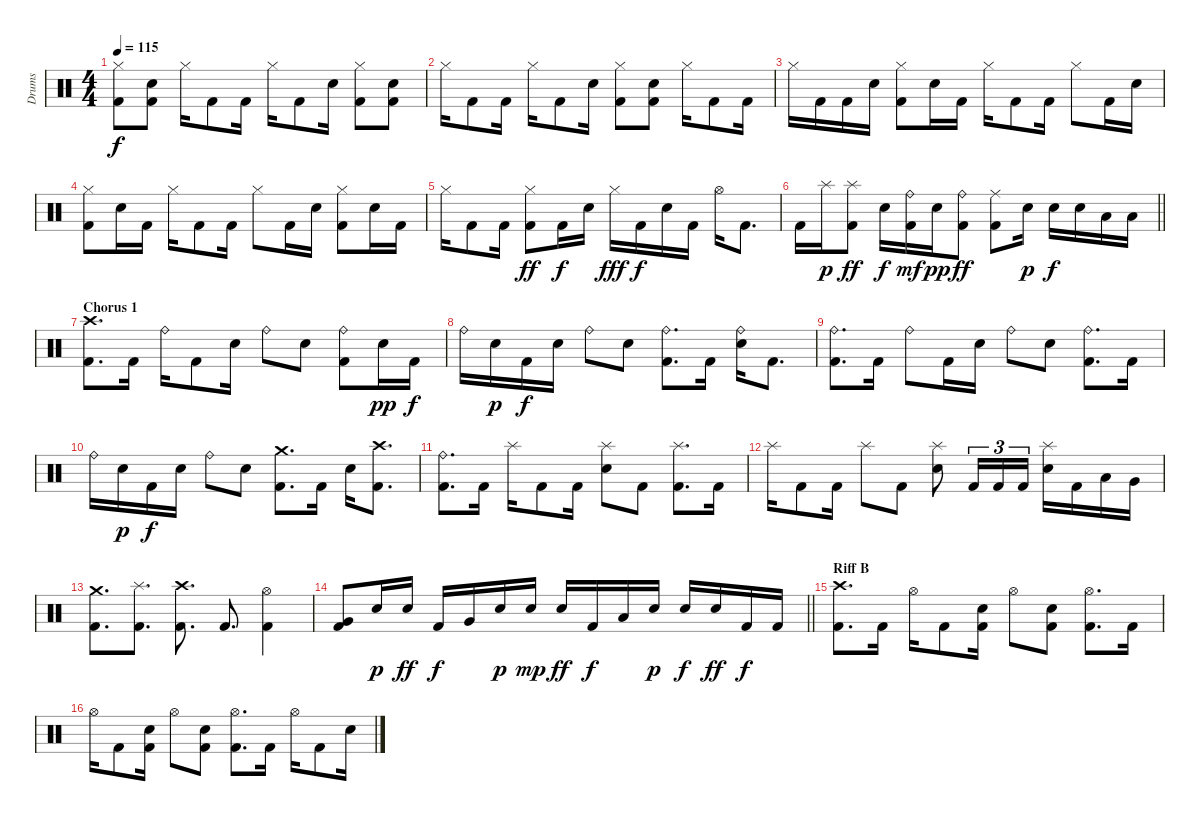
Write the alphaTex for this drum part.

\track ("Drums" "Drums") {instrument percussion}
\staff {score}
\articulation defaults
\ts (4 4)
\tempo 115
\clef neutral
\ks c
("Hi-Hat (closed)" "Kick (hit) 2").8{dy f} ("Snare (hit) 2" "Kick (hit) 2").8 "Hi-Hat (closed)".16 "Kick (hit) 2".8 "Kick (hit) 2".16 "Hi-Hat (closed)".16 "Kick (hit) 2".8 "Snare (hit) 2".16 ("Hi-Hat (closed)" "Kick (hit) 2").8 ("Snare (hit) 2" "Kick (hit) 2").8 |
"Hi-Hat (closed)".16 "Kick (hit) 2".8 "Kick (hit) 2".16 "Hi-Hat (closed)".16 "Kick (hit) 2".8 "Snare (hit) 2".16 ("Hi-Hat (closed)" "Kick (hit) 2").8 ("Snare (hit) 2" "Kick (hit) 2").8 "Hi-Hat (closed)".16 "Kick (hit) 2".8 "Kick (hit) 2".16 |
"Hi-Hat (closed)".16 "Kick (hit) 2".16 "Kick (hit) 2".16 "Snare (hit) 2".16 ("Hi-Hat (closed)" "Kick (hit) 2").8 "Snare (hit) 2".16 "Kick (hit) 2".16 "Hi-Hat (closed)".16 "Kick (hit) 2".8 "Kick (hit) 2".16 "Hi-Hat (closed)".8 "Kick (hit) 2".16 "Snare (hit) 2".16 |
("Hi-Hat (closed)" "Kick (hit) 2").8 "Snare (hit) 2".16 "Kick (hit) 2".16 "Hi-Hat (closed)".16 "Kick (hit) 2".8 "Kick (hit) 2".16 "Hi-Hat (closed)".8 "Kick (hit) 2".16 "Snare (hit) 2".16 ("Hi-Hat (closed)" "Kick (hit) 2").8 "Snare (hit) 2".16 "Kick (hit) 2".16 |
"Hi-Hat (closed)".16 "Kick (hit) 2".8 "Kick (hit) 2".16 ("Hi-Hat (closed)" "Kick (hit) 2").8{dy ff} "Kick (hit) 2".16{dy f} "Snare (hit) 2".16 "Hi-Hat (closed)".16{dy fff} "Kick (hit) 2".16{dy f} "Snare (hit) 2".16 "Kick (hit) 2".16 "Hi-Hat (open)".16 "Kick (hit) 2".8{d} |
\barLineRight lightlight "Kick (hit) 2".16 "Splash (hit)".16{dy p}
("Splash (hit)" "Kick (hit) 2").8{dy ff} "Snare (hit) 2".16{dy f} ("Ride (bell)" "Kick (hit) 2").16{dy mf} "Snare (hit) 2".16{dy pp} ("Ride (bell)" "Kick (hit) 2").8{dy ff} ("Ride (middle)" "Kick (hit) 2").8 "Snare (hit) 2".16{dy p} "Snare (hit) 2".16{dy f} "Snare (hit) 2".16 "Low Tom (hit)".16 "Low Tom (hit)".16 |
\section ("" "Chorus 1")
("Crash high (hit)" "Kick (hit) 2").8{d} "Kick (hit) 2".16 "Ride (bell)".16 "Kick (hit) 2".8 "Snare (hit) 2".16 "Ride (bell)".8 "Snare (hit) 2".8 ("Ride (bell)" "Kick (hit) 2").8 "Snare (hit) 2".16{dy pp} "Kick (hit) 2".16{dy f} |
"Ride (bell)".16 "Snare (hit) 2".16{dy p} "Kick (hit) 2".16{dy f} "Snare (hit) 2".16 "Ride (bell)".8 "Snare (hit) 2".8 ("Ride (bell)" "Kick (hit) 2").8{d} "Kick (hit) 2".16 ("Ride (bell)" "Snare (hit) 2").16 "Kick (hit) 2".8{d} |
("Ride (bell)" "Kick (hit) 2").8{d} "Kick (hit) 2".16 "Ride (bell)".8 "Kick (hit) 2".16 "Snare (hit) 2".16 "Ride (bell)".8 "Snare (hit) 2".8 ("Ride (bell)" "Kick (hit) 2").8{d} "Kick (hit) 2".16 |
"Ride (bell)".16 "Snare (hit) 2".16{dy p} "Kick (hit) 2".16{dy f} "Snare (hit) 2".16 "Ride (bell)".8 "Snare (hit) 2".8 ("Crash medium (hit)" "Kick (hit) 2").8{d} "Kick (hit) 2".16 "Snare (hit) 2".16 ("Crash high (hit)" "Kick (hit) 2").8{d} |
("Ride (bell)" "Kick (hit) 2").8{d} "Kick (hit) 2".16 "Splash (hit)".16 "Kick (hit) 2".8 "Kick (hit) 2".16 ("Splash (hit)" "Snare (hit) 2").8 "Kick (hit) 2".8 ("Splash (hit)" "Kick (hit) 2").8{d} "Kick (hit) 2".16 |
"Splash (hit)".16 "Kick (hit) 2".8 "Kick (hit) 2".16 "Splash (hit)".8 "Kick (hit) 2".8 ("Splash (hit)" "Snare (hit) 2").8 "Kick (hit) 2".16{tu (3 2)} "Kick (hit) 2".16{tu (3 2)} "Kick (hit) 2".16{tu (3 2)} ("Splash (hit)" "Snare (hit) 2").16 "Kick (hit) 2".16 "Low Tom (hit)".16 "Very Low Tom (hit)".16 |
("Crash medium (hit)" "Kick (hit) 2").8{d} ("Splash (hit)" "Kick (hit) 2").8{d} ("Crash high (hit)" "Kick (hit) 2").8{d} "Kick (hit) 2".8{d} ("Hi-Hat (open)" "Kick (hit) 2").4 |
\barLineRight lightlight
("Very Low Tom (hit)" "Kick (hit) 2").8 "Snare (hit) 2".16{dy p} "Snare (hit) 2".16{dy ff} "Kick (hit) 2".16{dy f} "Very Low Tom (hit)".16 "Snare (hit) 2".16{dy p} "Snare (hit) 2".16{dy mp} "Snare (hit) 2".16{dy ff} "Kick (hit) 2".16{dy f} "Low Tom (hit)".16 "Snare (hit) 2".16{dy p} "Snare (hit) 2".16{dy f} "Snare (hit) 2".16{dy ff} "Kick (hit) 2".16{dy f} "Kick (hit) 2".16 |
\section ("" "Riff B")
("Crash high (hit)" "Kick (hit) 2").8{d} "Kick (hit) 2".16 "Hi-Hat (open)".16 "Kick (hit) 2".8 ("Snare (hit) 2" "Kick (hit) 2").16 "Hi-Hat (open)".8 ("Snare (hit) 2" "Kick (hit) 2").8 ("Hi-Hat (open)" "Kick (hit) 2").8{d} "Kick (hit) 2".16 |
"Hi-Hat (open)".16 "Kick (hit) 2".8 ("Snare (hit) 2" "Kick (hit) 2").16 "Hi-Hat (open)".8 ("Snare (hit) 2" "Kick (hit) 2").8 ("Hi-Hat (open)" "Kick (hit) 2").8{d} "Kick (hit) 2".16 "Hi-Hat (open)".16 "Kick (hit) 2".8 "Snare (hit) 2".16
